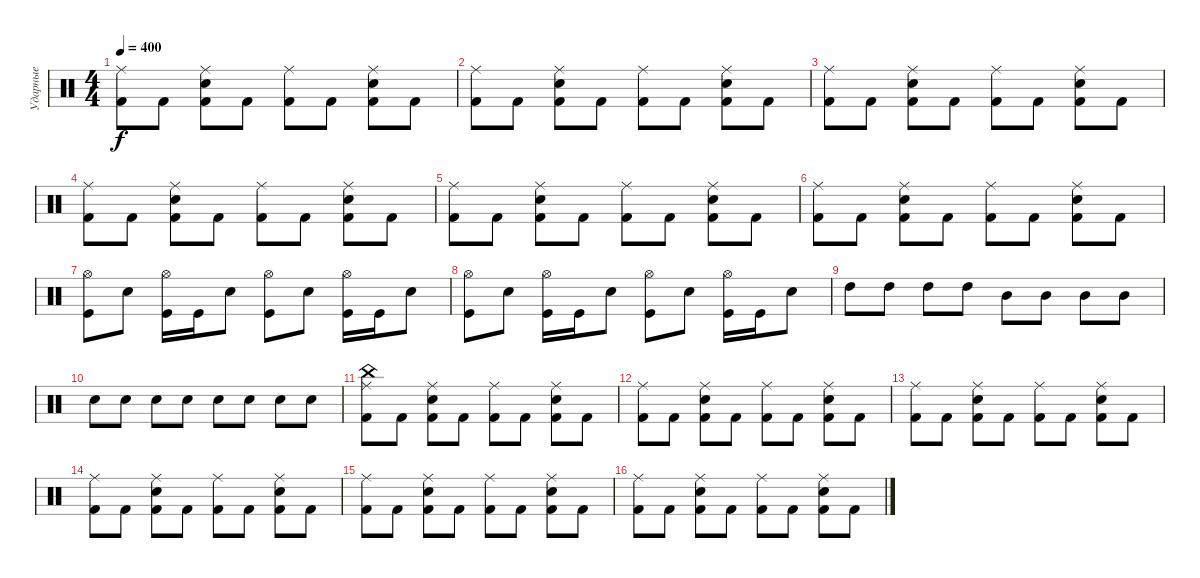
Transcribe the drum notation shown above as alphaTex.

\track ("Ударные" "Ударные") {instrument percussion}
\staff {score}
\articulation defaults
\ts (4 4)
\tempo 400
\clef neutral
\ks c
("Ride (middle)" "Kick (hit) 2").8{dy f} "Kick (hit) 2".8 ("Ride (middle)" "Snare (hit) 2" "Kick (hit) 2").8 "Kick (hit) 2".8 ("Ride (middle)" "Kick (hit) 2").8 "Kick (hit) 2".8 ("Ride (middle)" "Snare (hit) 2" "Kick (hit) 2").8 "Kick (hit) 2".8 |
("Ride (middle)" "Kick (hit) 2").8 "Kick (hit) 2".8 ("Ride (middle)" "Snare (hit) 2" "Kick (hit) 2").8 "Kick (hit) 2".8 ("Ride (middle)" "Kick (hit) 2").8 "Kick (hit) 2".8 ("Ride (middle)" "Snare (hit) 2" "Kick (hit) 2").8 "Kick (hit) 2".8 |
("Ride (middle)" "Kick (hit) 2").8 "Kick (hit) 2".8 ("Ride (middle)" "Snare (hit) 2" "Kick (hit) 2").8 "Kick (hit) 2".8 ("Ride (middle)" "Kick (hit) 2").8 "Kick (hit) 2".8 ("Ride (middle)" "Snare (hit) 2" "Kick (hit) 2").8 "Kick (hit) 2".8 |
("Ride (middle)" "Kick (hit) 2").8 "Kick (hit) 2".8 ("Ride (middle)" "Snare (hit) 2" "Kick (hit) 2").8 "Kick (hit) 2".8 ("Ride (middle)" "Kick (hit) 2").8 "Kick (hit) 2".8 ("Ride (middle)" "Snare (hit) 2" "Kick (hit) 2").8 "Kick (hit) 2".8 |
("Ride (middle)" "Kick (hit) 2").8 "Kick (hit) 2".8 ("Ride (middle)" "Snare (hit) 2" "Kick (hit) 2").8 "Kick (hit) 2".8 ("Ride (middle)" "Kick (hit) 2").8 "Kick (hit) 2".8 ("Ride (middle)" "Snare (hit) 2" "Kick (hit) 2").8 "Kick (hit) 2".8 |
("Ride (middle)" "Kick (hit) 2").8 "Kick (hit) 2".8 ("Ride (middle)" "Snare (hit) 2" "Kick (hit) 2").8 "Kick (hit) 2".8 ("Ride (middle)" "Kick (hit) 2").8 "Kick (hit) 2".8 ("Ride (middle)" "Snare (hit) 2" "Kick (hit) 2").8 "Kick (hit) 2".8 |
("Hi-Hat (open)" "Kick (hit)").8 "Snare (hit) 2".8 ("Hi-Hat (open)" "Kick (hit)").16 "Kick (hit)".16 "Snare (hit) 2".8 ("Hi-Hat (open)" "Kick (hit)").8 "Snare (hit) 2".8 ("Hi-Hat (open)" "Kick (hit)").16 "Kick (hit)".16 "Snare (hit) 2".8 |
("Hi-Hat (open)" "Kick (hit)").8 "Snare (hit) 2".8 ("Hi-Hat (open)" "Kick (hit)").16 "Kick (hit)".16 "Snare (hit) 2".8 ("Hi-Hat (open)" "Kick (hit)").8 "Snare (hit) 2".8 ("Hi-Hat (open)" "Kick (hit)").16 "Kick (hit)".16 "Snare (hit) 2".8 |
"High Tom (hit)".8 "High Tom (hit)".8 "High Tom (hit)".8 "High Tom (hit)".8 "Mid Tom (hit)".8 "Mid Tom (hit)".8 "Mid Tom (hit)".8 "Mid Tom (hit)".8 |
"Snare (hit) 2".8 "Snare (hit) 2".8 "Snare (hit) 2".8 "Snare (hit) 2".8 "Electric Snare (hit)".8 "Electric Snare (hit)".8 "Electric Snare (hit)".8 "Electric Snare (hit)".8 |
("Ride (middle)" "China (hit)" "Kick (hit) 2").8 "Kick (hit) 2".8 ("Ride (middle)" "Snare (hit) 2" "Kick (hit) 2").8 "Kick (hit) 2".8 ("Ride (middle)" "Kick (hit) 2").8 "Kick (hit) 2".8 ("Ride (middle)" "Snare (hit) 2" "Kick (hit) 2").8 "Kick (hit) 2".8 |
("Ride (middle)" "Kick (hit) 2").8 "Kick (hit) 2".8 ("Ride (middle)" "Snare (hit) 2" "Kick (hit) 2").8 "Kick (hit) 2".8 ("Ride (middle)" "Kick (hit) 2").8 "Kick (hit) 2".8 ("Ride (middle)" "Snare (hit) 2" "Kick (hit) 2").8 "Kick (hit) 2".8 |
("Ride (middle)" "Kick (hit) 2").8 "Kick (hit) 2".8 ("Ride (middle)" "Snare (hit) 2" "Kick (hit) 2").8 "Kick (hit) 2".8 ("Ride (middle)" "Kick (hit) 2").8 "Kick (hit) 2".8 ("Ride (middle)" "Snare (hit) 2" "Kick (hit) 2").8 "Kick (hit) 2".8 |
("Ride (middle)" "Kick (hit) 2").8 "Kick (hit) 2".8 ("Ride (middle)" "Snare (hit) 2" "Kick (hit) 2").8 "Kick (hit) 2".8 ("Ride (middle)" "Kick (hit) 2").8 "Kick (hit) 2".8 ("Ride (middle)" "Snare (hit) 2" "Kick (hit) 2").8 "Kick (hit) 2".8 |
("Ride (middle)" "Kick (hit) 2").8 "Kick (hit) 2".8 ("Ride (middle)" "Snare (hit) 2" "Kick (hit) 2").8 "Kick (hit) 2".8 ("Ride (middle)" "Kick (hit) 2").8 "Kick (hit) 2".8 ("Ride (middle)" "Snare (hit) 2" "Kick (hit) 2").8 "Kick (hit) 2".8 |
("Ride (middle)" "Kick (hit) 2").8 "Kick (hit) 2".8 ("Ride (middle)" "Snare (hit) 2" "Kick (hit) 2").8 "Kick (hit) 2".8 ("Ride (middle)" "Kick (hit) 2").8 "Kick (hit) 2".8 ("Ride (middle)" "Snare (hit) 2" "Kick (hit) 2").8 "Kick (hit) 2".8
